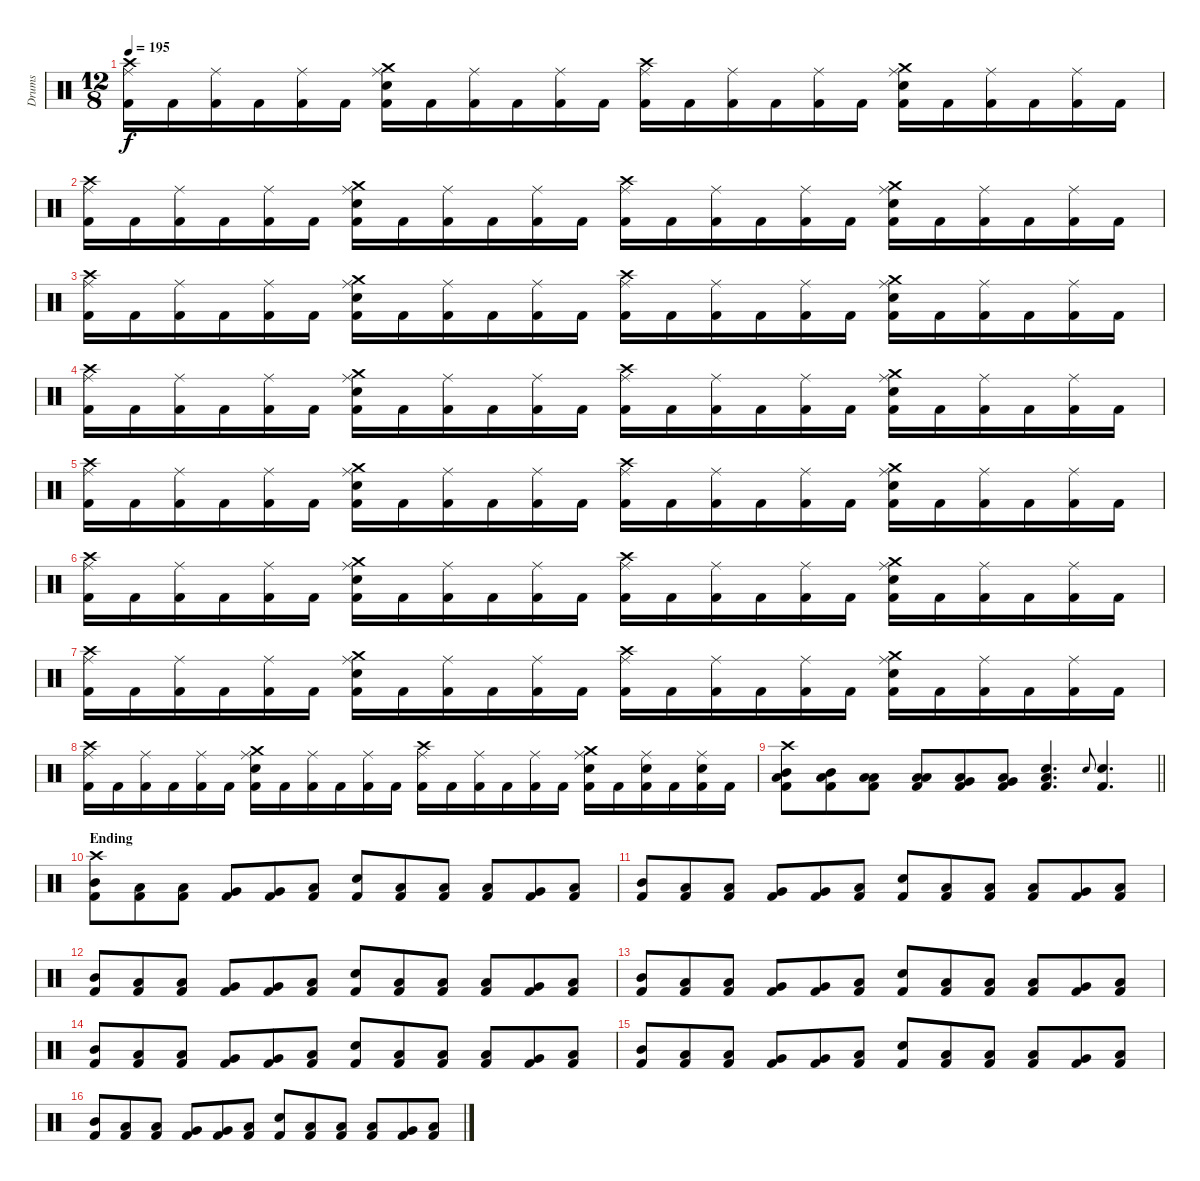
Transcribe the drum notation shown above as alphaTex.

\track ("Drums" "Drums") {instrument percussion}
\staff {score}
\articulation defaults
\ts (12 8)
\tempo 195
\clef neutral
\ks c
("Crash high (hit)" "Ride (middle)" "Kick (hit) 2").16{dy f} "Kick (hit) 2".16 ("Ride (middle)" "Kick (hit) 2").16 "Kick (hit) 2".16 ("Ride (middle)" "Kick (hit) 2").16 "Kick (hit) 2".16 ("Crash medium (hit)" "Ride (middle)" "Snare (hit) 2" "Kick (hit) 2").16 "Kick (hit) 2".16 ("Ride (middle)" "Kick (hit) 2").16 "Kick (hit) 2".16 ("Ride (middle)" "Kick (hit) 2").16 "Kick (hit) 2".16 ("Crash high (hit)" "Ride (middle)" "Kick (hit) 2").16 "Kick (hit) 2".16 ("Ride (middle)" "Kick (hit) 2").16 "Kick (hit) 2".16 ("Ride (middle)" "Kick (hit) 2").16 "Kick (hit) 2".16 ("Crash medium (hit)" "Ride (middle)" "Snare (hit) 2" "Kick (hit) 2").16 "Kick (hit) 2".16 ("Ride (middle)" "Kick (hit) 2").16 "Kick (hit) 2".16 ("Ride (middle)" "Kick (hit) 2").16 "Kick (hit) 2".16 |
("Crash high (hit)" "Ride (middle)" "Kick (hit) 2").16 "Kick (hit) 2".16 ("Ride (middle)" "Kick (hit) 2").16 "Kick (hit) 2".16 ("Ride (middle)" "Kick (hit) 2").16 "Kick (hit) 2".16 ("Crash medium (hit)" "Ride (middle)" "Snare (hit) 2" "Kick (hit) 2").16 "Kick (hit) 2".16 ("Ride (middle)" "Kick (hit) 2").16 "Kick (hit) 2".16 ("Ride (middle)" "Kick (hit) 2").16 "Kick (hit) 2".16 ("Crash high (hit)" "Ride (middle)" "Kick (hit) 2").16 "Kick (hit) 2".16 ("Ride (middle)" "Kick (hit) 2").16 "Kick (hit) 2".16 ("Ride (middle)" "Kick (hit) 2").16 "Kick (hit) 2".16 ("Crash medium (hit)" "Ride (middle)" "Snare (hit) 2" "Kick (hit) 2").16 "Kick (hit) 2".16 ("Ride (middle)" "Kick (hit) 2").16 "Kick (hit) 2".16 ("Ride (middle)" "Kick (hit) 2").16 "Kick (hit) 2".16 |
("Crash high (hit)" "Ride (middle)" "Kick (hit) 2").16 "Kick (hit) 2".16 ("Ride (middle)" "Kick (hit) 2").16 "Kick (hit) 2".16 ("Ride (middle)" "Kick (hit) 2").16 "Kick (hit) 2".16 ("Crash medium (hit)" "Ride (middle)" "Snare (hit) 2" "Kick (hit) 2").16 "Kick (hit) 2".16 ("Ride (middle)" "Kick (hit) 2").16 "Kick (hit) 2".16 ("Ride (middle)" "Kick (hit) 2").16 "Kick (hit) 2".16 ("Crash high (hit)" "Ride (middle)" "Kick (hit) 2").16 "Kick (hit) 2".16 ("Ride (middle)" "Kick (hit) 2").16 "Kick (hit) 2".16 ("Ride (middle)" "Kick (hit) 2").16 "Kick (hit) 2".16 ("Crash medium (hit)" "Ride (middle)" "Snare (hit) 2" "Kick (hit) 2").16 "Kick (hit) 2".16 ("Ride (middle)" "Kick (hit) 2").16 "Kick (hit) 2".16 ("Ride (middle)" "Kick (hit) 2").16 "Kick (hit) 2".16 |
("Crash high (hit)" "Ride (middle)" "Kick (hit) 2").16 "Kick (hit) 2".16 ("Ride (middle)" "Kick (hit) 2").16 "Kick (hit) 2".16 ("Ride (middle)" "Kick (hit) 2").16 "Kick (hit) 2".16 ("Crash medium (hit)" "Ride (middle)" "Snare (hit) 2" "Kick (hit) 2").16 "Kick (hit) 2".16 ("Ride (middle)" "Kick (hit) 2").16 "Kick (hit) 2".16 ("Ride (middle)" "Kick (hit) 2").16 "Kick (hit) 2".16 ("Crash high (hit)" "Ride (middle)" "Kick (hit) 2").16 "Kick (hit) 2".16 ("Ride (middle)" "Kick (hit) 2").16 "Kick (hit) 2".16 ("Ride (middle)" "Kick (hit) 2").16 "Kick (hit) 2".16 ("Crash medium (hit)" "Ride (middle)" "Snare (hit) 2" "Kick (hit) 2").16 "Kick (hit) 2".16 ("Ride (middle)" "Kick (hit) 2").16 "Kick (hit) 2".16 ("Ride (middle)" "Kick (hit) 2").16 "Kick (hit) 2".16 |
("Crash high (hit)" "Ride (middle)" "Kick (hit) 2").16 "Kick (hit) 2".16 ("Ride (middle)" "Kick (hit) 2").16 "Kick (hit) 2".16 ("Ride (middle)" "Kick (hit) 2").16 "Kick (hit) 2".16 ("Crash medium (hit)" "Ride (middle)" "Snare (hit) 2" "Kick (hit) 2").16 "Kick (hit) 2".16 ("Ride (middle)" "Kick (hit) 2").16 "Kick (hit) 2".16 ("Ride (middle)" "Kick (hit) 2").16 "Kick (hit) 2".16 ("Crash high (hit)" "Ride (middle)" "Kick (hit) 2").16 "Kick (hit) 2".16 ("Ride (middle)" "Kick (hit) 2").16 "Kick (hit) 2".16 ("Ride (middle)" "Kick (hit) 2").16 "Kick (hit) 2".16 ("Crash medium (hit)" "Ride (middle)" "Snare (hit) 2" "Kick (hit) 2").16 "Kick (hit) 2".16 ("Ride (middle)" "Kick (hit) 2").16 "Kick (hit) 2".16 ("Ride (middle)" "Kick (hit) 2").16 "Kick (hit) 2".16 |
("Crash high (hit)" "Ride (middle)" "Kick (hit) 2").16 "Kick (hit) 2".16 ("Ride (middle)" "Kick (hit) 2").16 "Kick (hit) 2".16 ("Ride (middle)" "Kick (hit) 2").16 "Kick (hit) 2".16 ("Crash medium (hit)" "Ride (middle)" "Snare (hit) 2" "Kick (hit) 2").16 "Kick (hit) 2".16 ("Ride (middle)" "Kick (hit) 2").16 "Kick (hit) 2".16 ("Ride (middle)" "Kick (hit) 2").16 "Kick (hit) 2".16 ("Crash high (hit)" "Ride (middle)" "Kick (hit) 2").16 "Kick (hit) 2".16 ("Ride (middle)" "Kick (hit) 2").16 "Kick (hit) 2".16 ("Ride (middle)" "Kick (hit) 2").16 "Kick (hit) 2".16 ("Crash medium (hit)" "Ride (middle)" "Snare (hit) 2" "Kick (hit) 2").16 "Kick (hit) 2".16 ("Ride (middle)" "Kick (hit) 2").16 "Kick (hit) 2".16 ("Ride (middle)" "Kick (hit) 2").16 "Kick (hit) 2".16 |
("Crash high (hit)" "Ride (middle)" "Kick (hit) 2").16 "Kick (hit) 2".16 ("Ride (middle)" "Kick (hit) 2").16 "Kick (hit) 2".16 ("Ride (middle)" "Kick (hit) 2").16 "Kick (hit) 2".16 ("Crash medium (hit)" "Ride (middle)" "Snare (hit) 2" "Kick (hit) 2").16 "Kick (hit) 2".16 ("Ride (middle)" "Kick (hit) 2").16 "Kick (hit) 2".16 ("Ride (middle)" "Kick (hit) 2").16 "Kick (hit) 2".16 ("Crash high (hit)" "Ride (middle)" "Kick (hit) 2").16 "Kick (hit) 2".16 ("Ride (middle)" "Kick (hit) 2").16 "Kick (hit) 2".16 ("Ride (middle)" "Kick (hit) 2").16 "Kick (hit) 2".16 ("Crash medium (hit)" "Ride (middle)" "Snare (hit) 2" "Kick (hit) 2").16 "Kick (hit) 2".16 ("Ride (middle)" "Kick (hit) 2").16 "Kick (hit) 2".16 ("Ride (middle)" "Kick (hit) 2").16 "Kick (hit) 2".16 |
("Crash high (hit)" "Ride (middle)" "Kick (hit) 2").16 "Kick (hit) 2".16 ("Ride (middle)" "Kick (hit) 2").16 "Kick (hit) 2".16 ("Ride (middle)" "Kick (hit) 2").16 "Kick (hit) 2".16 ("Crash medium (hit)" "Ride (middle)" "Snare (hit) 2" "Kick (hit) 2").16 "Kick (hit) 2".16 ("Ride (middle)" "Kick (hit) 2").16 "Kick (hit) 2".16 ("Ride (middle)" "Kick (hit) 2").16 "Kick (hit) 2".16 ("Crash high (hit)" "Ride (middle)" "Kick (hit) 2").16 "Kick (hit) 2".16 ("Ride (middle)" "Kick (hit) 2").16 "Kick (hit) 2".16 ("Ride (middle)" "Kick (hit) 2").16 "Kick (hit) 2".16 ("Crash medium (hit)" "Ride (middle)" "Snare (hit) 2" "Kick (hit) 2").16 "Kick (hit) 2".16 ("Ride (middle)" "Snare (hit) 2" "Kick (hit) 2").16 "Kick (hit) 2".16 ("Ride (middle)" "Snare (hit) 2" "Kick (hit) 2").16 "Kick (hit) 2".16 |
\barLineRight lightlight
("Crash high (hit)" "Mid Tom (hit)" "Low Floor Tom (hit)" "Kick (hit) 2").8 ("Mid Tom (hit)" "Low Floor Tom (hit)" "Kick (hit) 2").8 ("Low Tom (hit)" "Low Floor Tom (hit)" "Kick (hit) 2").8 ("Low Tom (hit)" "Low Floor Tom (hit)" "Kick (hit) 2").8 ("Very Low Tom (hit)" "Low Floor Tom (hit)" "Kick (hit) 2").8 ("Very Low Tom (hit)" "Low Floor Tom (hit)" "Kick (hit) 2").8 ("Low Floor Tom (hit)" "Snare (hit)" "Kick (hit) 2").4{d} "Snare (hit) 2".8{gr onbeat} ("Snare (hit) 2" "Kick (hit) 2").4{d} |
\section ("" "Ending")
("Crash high (hit)" "Mid Tom (hit)" "Kick (hit) 2").8 ("Low Tom (hit)" "Kick (hit) 2").8 ("Low Tom (hit)" "Kick (hit) 2").8 ("Very Low Tom (hit)" "Kick (hit) 2").8 ("Very Low Tom (hit)" "Kick (hit) 2").8 ("Low Floor Tom (hit)" "Kick (hit) 2").8 ("Snare (hit) 2" "Kick (hit) 2").8 ("Low Floor Tom (hit)" "Kick (hit) 2").8 ("Low Floor Tom (hit)" "Kick (hit) 2").8 ("Low Tom (hit)" "Kick (hit) 2").8 ("Very Low Tom (hit)" "Kick (hit) 2").8 ("Low Floor Tom (hit)" "Kick (hit) 2").8 |
("Mid Tom (hit)" "Kick (hit) 2").8 ("Low Tom (hit)" "Kick (hit) 2").8 ("Low Tom (hit)" "Kick (hit) 2").8 ("Very Low Tom (hit)" "Kick (hit) 2").8 ("Very Low Tom (hit)" "Kick (hit) 2").8 ("Low Floor Tom (hit)" "Kick (hit) 2").8 ("Snare (hit) 2" "Kick (hit) 2").8 ("Low Floor Tom (hit)" "Kick (hit) 2").8 ("Low Floor Tom (hit)" "Kick (hit) 2").8 ("Low Tom (hit)" "Kick (hit) 2").8 ("Very Low Tom (hit)" "Kick (hit) 2").8 ("Low Floor Tom (hit)" "Kick (hit) 2").8 |
("Mid Tom (hit)" "Kick (hit) 2").8 ("Low Tom (hit)" "Kick (hit) 2").8 ("Low Tom (hit)" "Kick (hit) 2").8 ("Very Low Tom (hit)" "Kick (hit) 2").8 ("Very Low Tom (hit)" "Kick (hit) 2").8 ("Low Floor Tom (hit)" "Kick (hit) 2").8 ("Snare (hit) 2" "Kick (hit) 2").8 ("Low Floor Tom (hit)" "Kick (hit) 2").8 ("Low Floor Tom (hit)" "Kick (hit) 2").8 ("Low Tom (hit)" "Kick (hit) 2").8 ("Very Low Tom (hit)" "Kick (hit) 2").8 ("Low Floor Tom (hit)" "Kick (hit) 2").8 |
("Mid Tom (hit)" "Kick (hit) 2").8 ("Low Tom (hit)" "Kick (hit) 2").8 ("Low Tom (hit)" "Kick (hit) 2").8 ("Very Low Tom (hit)" "Kick (hit) 2").8 ("Very Low Tom (hit)" "Kick (hit) 2").8 ("Low Floor Tom (hit)" "Kick (hit) 2").8 ("Snare (hit) 2" "Kick (hit) 2").8 ("Low Floor Tom (hit)" "Kick (hit) 2").8 ("Low Floor Tom (hit)" "Kick (hit) 2").8 ("Low Tom (hit)" "Kick (hit) 2").8 ("Very Low Tom (hit)" "Kick (hit) 2").8 ("Low Floor Tom (hit)" "Kick (hit) 2").8 |
("Mid Tom (hit)" "Kick (hit) 2").8 ("Low Tom (hit)" "Kick (hit) 2").8 ("Low Tom (hit)" "Kick (hit) 2").8 ("Very Low Tom (hit)" "Kick (hit) 2").8 ("Very Low Tom (hit)" "Kick (hit) 2").8 ("Low Floor Tom (hit)" "Kick (hit) 2").8 ("Snare (hit) 2" "Kick (hit) 2").8 ("Low Floor Tom (hit)" "Kick (hit) 2").8 ("Low Floor Tom (hit)" "Kick (hit) 2").8 ("Low Tom (hit)" "Kick (hit) 2").8 ("Very Low Tom (hit)" "Kick (hit) 2").8 ("Low Floor Tom (hit)" "Kick (hit) 2").8 |
("Mid Tom (hit)" "Kick (hit) 2").8 ("Low Tom (hit)" "Kick (hit) 2").8 ("Low Tom (hit)" "Kick (hit) 2").8 ("Very Low Tom (hit)" "Kick (hit) 2").8 ("Very Low Tom (hit)" "Kick (hit) 2").8 ("Low Floor Tom (hit)" "Kick (hit) 2").8 ("Snare (hit) 2" "Kick (hit) 2").8 ("Low Floor Tom (hit)" "Kick (hit) 2").8 ("Low Floor Tom (hit)" "Kick (hit) 2").8 ("Low Tom (hit)" "Kick (hit) 2").8 ("Very Low Tom (hit)" "Kick (hit) 2").8 ("Low Floor Tom (hit)" "Kick (hit) 2").8 |
("Mid Tom (hit)" "Kick (hit) 2").8 ("Low Tom (hit)" "Kick (hit) 2").8 ("Low Tom (hit)" "Kick (hit) 2").8 ("Very Low Tom (hit)" "Kick (hit) 2").8 ("Very Low Tom (hit)" "Kick (hit) 2").8 ("Low Floor Tom (hit)" "Kick (hit) 2").8 ("Snare (hit) 2" "Kick (hit) 2").8 ("Low Floor Tom (hit)" "Kick (hit) 2").8 ("Low Floor Tom (hit)" "Kick (hit) 2").8 ("Low Tom (hit)" "Kick (hit) 2").8 ("Very Low Tom (hit)" "Kick (hit) 2").8 ("Low Floor Tom (hit)" "Kick (hit) 2").8
